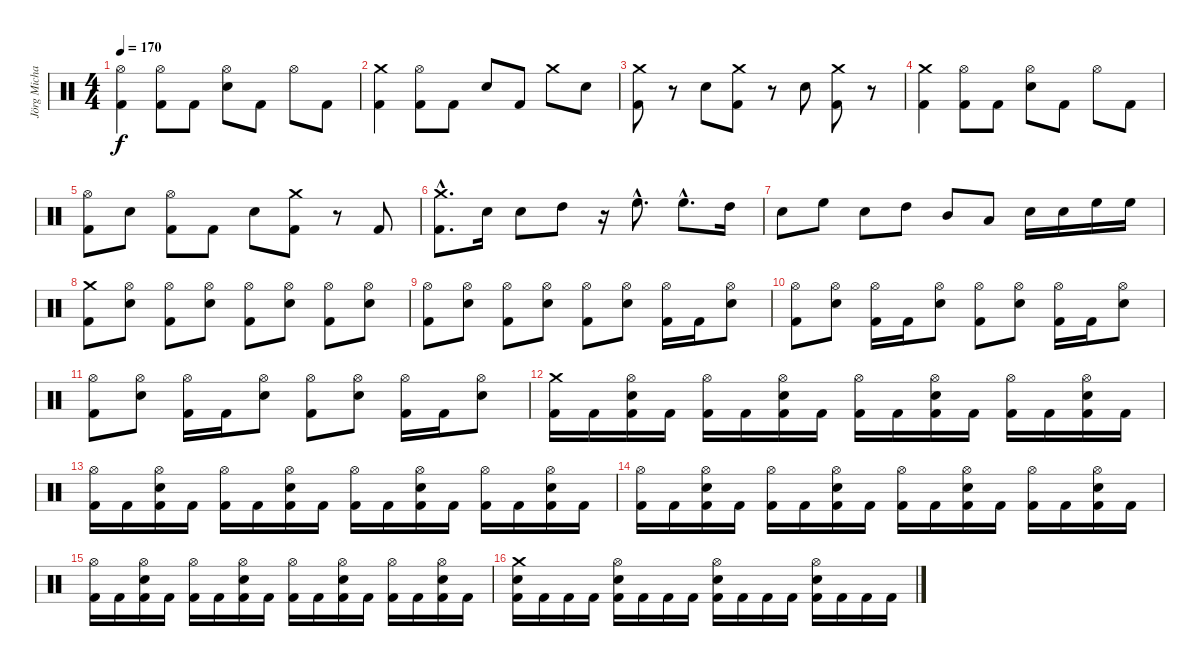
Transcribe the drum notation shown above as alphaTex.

\track ("Jörg Michael (Drums)" "Jörg Micha") {instrument percussion}
\staff {score}
\articulation defaults
\ts (4 4)
\tempo 170
\clef neutral
\ks c
("Hi-Hat (open)" "Kick (hit) 2").4{dy f} ("Kick (hit) 2" "Hi-Hat (open)").8 "Kick (hit) 2".8 ("Snare (hit) 2" "Hi-Hat (open)").8 "Kick (hit) 2".8 "Hi-Hat (open)".8 "Kick (hit) 2".8 |
("Kick (hit) 2" "Crash medium (hit)").4 ("Kick (hit) 2" "Hi-Hat (open)").8 "Kick (hit) 2".8 "Snare (hit) 2".8 "Kick (hit) 2".8 "Crash medium (hit)".8 "Snare (hit) 2".8 |
("Kick (hit) 2" "Crash medium (hit)").8 r.8 "Snare (hit) 2".8 ("Kick (hit) 2" "Crash medium (hit)").8 r.8 "Snare (hit) 2".8 ("Kick (hit) 2" "Crash medium (hit)").8 r.8 |
("Kick (hit) 2" "Crash medium (hit)").4 ("Kick (hit) 2" "Hi-Hat (open)").8 "Kick (hit) 2".8 ("Snare (hit) 2" "Hi-Hat (open)").8 "Kick (hit) 2".8 "Hi-Hat (open)".8 "Kick (hit) 2".8 |
("Kick (hit) 2" "Hi-Hat (open)").8 "Snare (hit) 2".8 ("Hi-Hat (open)" "Kick (hit) 2").8 "Kick (hit) 2".8 "Snare (hit) 2".8 ("Crash medium (hit)" "Kick (hit) 2").8 r.8 "Kick (hit) 2".8 |
("Kick (hit) 2" "Crash medium (hit)"{hac}).8{d} "Snare (hit) 2".16 "Snare (hit) 2".8 "High Tom (hit)".8 r.16 "High Floor Tom (hit)"{hac}.8{d} "High Floor Tom (hit)"{hac}.8{d} "High Tom (hit)".16 |
"Snare (hit) 2".8 "High Floor Tom (hit)".8 "Snare (hit) 2".8 "High Tom (hit)".8 "Mid Tom (hit)".8 "Low Tom (hit)".8 "Snare (hit) 2".16 "Snare (hit) 2".16 "High Floor Tom (hit)".16 "High Floor Tom (hit)".16 |
("Kick (hit) 2" "Crash medium (hit)").8 ("Snare (hit) 2" "Hi-Hat (open)").8 ("Kick (hit) 2" "Hi-Hat (open)").8 ("Snare (hit) 2" "Hi-Hat (open)").8 ("Kick (hit) 2" "Hi-Hat (open)").8 ("Snare (hit) 2" "Hi-Hat (open)").8 ("Kick (hit) 2" "Hi-Hat (open)").8 ("Snare (hit) 2" "Hi-Hat (open)").8 |
("Hi-Hat (open)" "Kick (hit) 2").8 ("Snare (hit) 2" "Hi-Hat (open)").8 ("Kick (hit) 2" "Hi-Hat (open)").8 ("Snare (hit) 2" "Hi-Hat (open)").8 ("Kick (hit) 2" "Hi-Hat (open)").8 ("Snare (hit) 2" "Hi-Hat (open)").8 ("Kick (hit) 2" "Hi-Hat (open)").16 "Kick (hit) 2".16 ("Snare (hit) 2" "Hi-Hat (open)").8 |
("Hi-Hat (open)" "Kick (hit) 2").8 ("Snare (hit) 2" "Hi-Hat (open)").8 ("Kick (hit) 2" "Hi-Hat (open)").16 "Kick (hit) 2".16 ("Snare (hit) 2" "Hi-Hat (open)").8 ("Kick (hit) 2" "Hi-Hat (open)").8 ("Snare (hit) 2" "Hi-Hat (open)").8 ("Kick (hit) 2" "Hi-Hat (open)").16 "Kick (hit) 2".16 ("Snare (hit) 2" "Hi-Hat (open)").8 |
("Hi-Hat (open)" "Kick (hit) 2").8 ("Snare (hit) 2" "Hi-Hat (open)").8 ("Kick (hit) 2" "Hi-Hat (open)").16 "Kick (hit) 2".16 ("Snare (hit) 2" "Hi-Hat (open)").8 ("Kick (hit) 2" "Hi-Hat (open)").8 ("Snare (hit) 2" "Hi-Hat (open)").8 ("Kick (hit) 2" "Hi-Hat (open)").16 "Kick (hit) 2".16 ("Snare (hit) 2" "Hi-Hat (open)").8 |
("Kick (hit) 2" "Crash medium (hit)").16 "Kick (hit) 2".16 ("Kick (hit) 2" "Snare (hit) 2" "Hi-Hat (open)").16 "Kick (hit) 2".16 ("Kick (hit) 2" "Hi-Hat (open)").16 "Kick (hit) 2".16 ("Kick (hit) 2" "Snare (hit) 2" "Hi-Hat (open)").16 "Kick (hit) 2".16 ("Kick (hit) 2" "Hi-Hat (open)").16 "Kick (hit) 2".16 ("Kick (hit) 2" "Snare (hit) 2" "Hi-Hat (open)").16 "Kick (hit) 2".16 ("Kick (hit) 2" "Hi-Hat (open)").16 "Kick (hit) 2".16 ("Kick (hit) 2" "Snare (hit) 2" "Hi-Hat (open)").16 "Kick (hit) 2".16 |
("Hi-Hat (open)" "Kick (hit) 2").16 "Kick (hit) 2".16 ("Kick (hit) 2" "Snare (hit) 2" "Hi-Hat (open)").16 "Kick (hit) 2".16 ("Kick (hit) 2" "Hi-Hat (open)").16 "Kick (hit) 2".16 ("Kick (hit) 2" "Snare (hit) 2" "Hi-Hat (open)").16 "Kick (hit) 2".16 ("Kick (hit) 2" "Hi-Hat (open)").16 "Kick (hit) 2".16 ("Kick (hit) 2" "Snare (hit) 2" "Hi-Hat (open)").16 "Kick (hit) 2".16 ("Kick (hit) 2" "Hi-Hat (open)").16 "Kick (hit) 2".16 ("Kick (hit) 2" "Snare (hit) 2" "Hi-Hat (open)").16 "Kick (hit) 2".16 |
("Hi-Hat (open)" "Kick (hit) 2").16 "Kick (hit) 2".16 ("Kick (hit) 2" "Snare (hit) 2" "Hi-Hat (open)").16 "Kick (hit) 2".16 ("Kick (hit) 2" "Hi-Hat (open)").16 "Kick (hit) 2".16 ("Kick (hit) 2" "Snare (hit) 2" "Hi-Hat (open)").16 "Kick (hit) 2".16 ("Kick (hit) 2" "Hi-Hat (open)").16 "Kick (hit) 2".16 ("Kick (hit) 2" "Snare (hit) 2" "Hi-Hat (open)").16 "Kick (hit) 2".16 ("Kick (hit) 2" "Hi-Hat (open)").16 "Kick (hit) 2".16 ("Kick (hit) 2" "Snare (hit) 2" "Hi-Hat (open)").16 "Kick (hit) 2".16 |
("Hi-Hat (open)" "Kick (hit) 2").16 "Kick (hit) 2".16 ("Kick (hit) 2" "Snare (hit) 2" "Hi-Hat (open)").16 "Kick (hit) 2".16 ("Kick (hit) 2" "Hi-Hat (open)").16 "Kick (hit) 2".16 ("Kick (hit) 2" "Snare (hit) 2" "Hi-Hat (open)").16 "Kick (hit) 2".16 ("Kick (hit) 2" "Hi-Hat (open)").16 "Kick (hit) 2".16 ("Kick (hit) 2" "Snare (hit) 2" "Hi-Hat (open)").16 "Kick (hit) 2".16 ("Kick (hit) 2" "Hi-Hat (open)").16 "Kick (hit) 2".16 ("Kick (hit) 2" "Snare (hit) 2" "Hi-Hat (open)").16 "Kick (hit) 2".16 |
("Snare (hit) 2" "Crash medium (hit)" "Kick (hit) 2").16 "Kick (hit) 2".16 "Kick (hit) 2".16 "Kick (hit) 2".16 ("Snare (hit) 2" "Hi-Hat (open)" "Kick (hit) 2").16 "Kick (hit) 2".16 "Kick (hit) 2".16 "Kick (hit) 2".16 ("Snare (hit) 2" "Hi-Hat (open)" "Kick (hit) 2").16 "Kick (hit) 2".16 "Kick (hit) 2".16 "Kick (hit) 2".16 ("Snare (hit) 2" "Hi-Hat (open)" "Kick (hit) 2").16 "Kick (hit) 2".16 "Kick (hit) 2".16 "Kick (hit) 2".16
